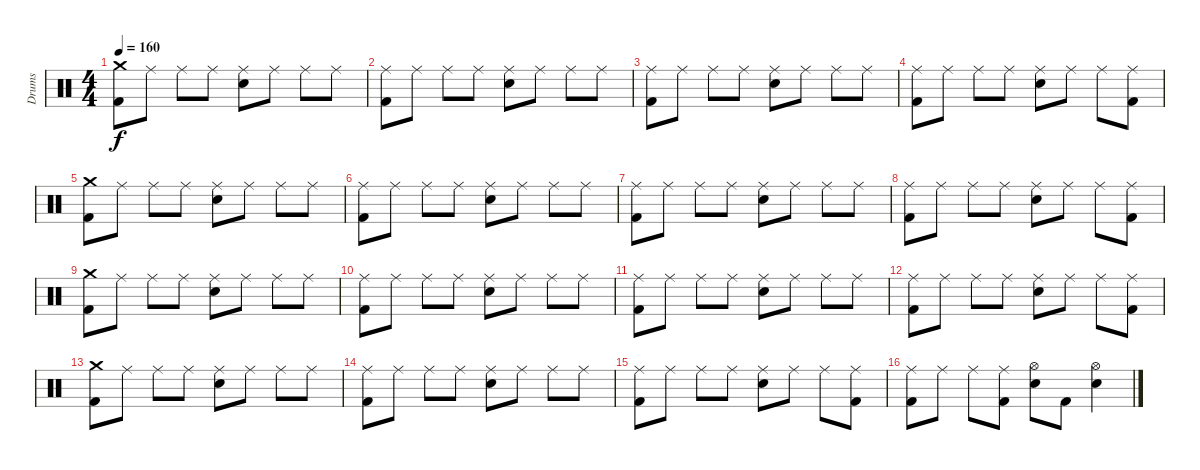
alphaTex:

\track ("Drums" "Drums") {instrument percussion}
\staff {score}
\articulation defaults
\ts (4 4)
\tempo 160
\clef neutral
\ks c
("Kick (hit) 2" "Crash medium (hit)").8{dy f} "Ride (middle)".8 "Ride (middle)".8 "Ride (middle)".8 ("Electric Snare (hit)" "Ride (middle)").8 "Ride (middle)".8 "Ride (middle)".8 "Ride (middle)".8 |
("Kick (hit) 2" "Ride (middle)").8 "Ride (middle)".8 "Ride (middle)".8 "Ride (middle)".8 ("Electric Snare (hit)" "Ride (middle)").8 "Ride (middle)".8 "Ride (middle)".8 "Ride (middle)".8 |
("Kick (hit) 2" "Ride (middle)").8 "Ride (middle)".8 "Ride (middle)".8 "Ride (middle)".8 ("Electric Snare (hit)" "Ride (middle)").8 "Ride (middle)".8 "Ride (middle)".8 "Ride (middle)".8 |
("Kick (hit) 2" "Ride (middle)").8 "Ride (middle)".8 "Ride (middle)".8 "Ride (middle)".8 ("Electric Snare (hit)" "Ride (middle)").8 "Ride (middle)".8 "Ride (middle)".8 ("Kick (hit) 2" "Ride (middle)").8 |
("Kick (hit) 2" "Crash medium (hit)").8 "Ride (middle)".8 "Ride (middle)".8 "Ride (middle)".8 ("Electric Snare (hit)" "Ride (middle)").8 "Ride (middle)".8 "Ride (middle)".8 "Ride (middle)".8 |
("Kick (hit) 2" "Ride (middle)").8 "Ride (middle)".8 "Ride (middle)".8 "Ride (middle)".8 ("Electric Snare (hit)" "Ride (middle)").8 "Ride (middle)".8 "Ride (middle)".8 "Ride (middle)".8 |
("Kick (hit) 2" "Ride (middle)").8 "Ride (middle)".8 "Ride (middle)".8 "Ride (middle)".8 ("Electric Snare (hit)" "Ride (middle)").8 "Ride (middle)".8 "Ride (middle)".8 "Ride (middle)".8 |
("Kick (hit) 2" "Ride (middle)").8 "Ride (middle)".8 "Ride (middle)".8 "Ride (middle)".8 ("Electric Snare (hit)" "Ride (middle)").8 "Ride (middle)".8 "Ride (middle)".8 ("Kick (hit) 2" "Ride (middle)").8 |
("Kick (hit) 2" "Crash medium (hit)").8 "Ride (middle)".8 "Ride (middle)".8 "Ride (middle)".8 ("Electric Snare (hit)" "Ride (middle)").8 "Ride (middle)".8 "Ride (middle)".8 "Ride (middle)".8 |
("Kick (hit) 2" "Ride (middle)").8 "Ride (middle)".8 "Ride (middle)".8 "Ride (middle)".8 ("Electric Snare (hit)" "Ride (middle)").8 "Ride (middle)".8 "Ride (middle)".8 "Ride (middle)".8 |
("Kick (hit) 2" "Ride (middle)").8 "Ride (middle)".8 "Ride (middle)".8 "Ride (middle)".8 ("Electric Snare (hit)" "Ride (middle)").8 "Ride (middle)".8 "Ride (middle)".8 "Ride (middle)".8 |
("Kick (hit) 2" "Ride (middle)").8 "Ride (middle)".8 "Ride (middle)".8 "Ride (middle)".8 ("Electric Snare (hit)" "Ride (middle)").8 "Ride (middle)".8 "Ride (middle)".8 ("Kick (hit) 2" "Ride (middle)").8 |
("Kick (hit) 2" "Crash medium (hit)").8 "Ride (middle)".8 "Ride (middle)".8 "Ride (middle)".8 ("Electric Snare (hit)" "Ride (middle)").8 "Ride (middle)".8 "Ride (middle)".8 "Ride (middle)".8 |
("Kick (hit) 2" "Ride (middle)").8 "Ride (middle)".8 "Ride (middle)".8 "Ride (middle)".8 ("Electric Snare (hit)" "Ride (middle)").8 "Ride (middle)".8 "Ride (middle)".8 "Ride (middle)".8 |
("Kick (hit) 2" "Ride (middle)").8 "Ride (middle)".8 "Ride (middle)".8 "Ride (middle)".8 ("Electric Snare (hit)" "Ride (middle)").8 "Ride (middle)".8 "Ride (middle)".8 ("Kick (hit) 2" "Ride (middle)").8 |
("Kick (hit) 2" "Ride (middle)").8 "Ride (middle)".8 "Ride (middle)".8 ("Kick (hit) 2" "Ride (middle)").8 ("Electric Snare (hit)" "Hi-Hat (open)").8 "Kick (hit) 2".8 ("Electric Snare (hit)" "Hi-Hat (open)").4
